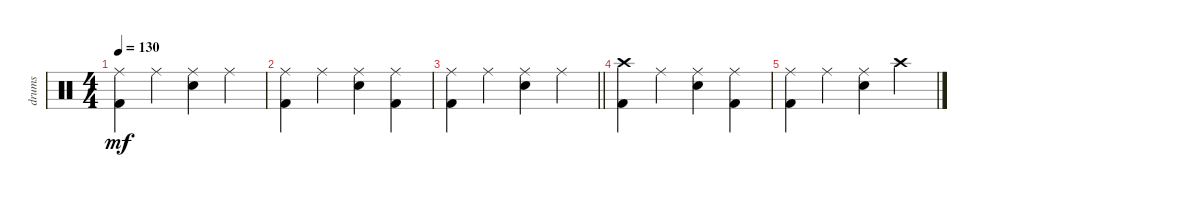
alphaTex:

\track ("drums" "drums") {instrument percussion}
\staff {score}
\articulation defaults
\ts (4 4)
\tempo 130
\clef neutral
\ks c
("Ride (middle)" "Kick (hit) 2").4{dy mf} "Ride (middle)".4 ("Ride (middle)" "Snare (hit) 2").4 "Ride (middle)".4 |
("Ride (middle)" "Kick (hit) 2").4 "Ride (middle)".4 ("Ride (middle)" "Snare (hit) 2").4 ("Ride (middle)" "Kick (hit) 2").4 |
\barLineRight lightlight
("Ride (middle)" "Kick (hit) 2").4 "Ride (middle)".4 ("Ride (middle)" "Snare (hit) 2").4 "Ride (middle)".4 |
("Crash high (hit)" "Kick (hit) 2").4 "Ride (middle)".4 ("Ride (middle)" "Snare (hit) 2").4 ("Ride (middle)" "Kick (hit) 2").4 |
("Ride (middle)" "Kick (hit) 2").4 "Ride (middle)".4 ("Ride (middle)" "Snare (hit) 2").4 "Crash high (hit)".4
